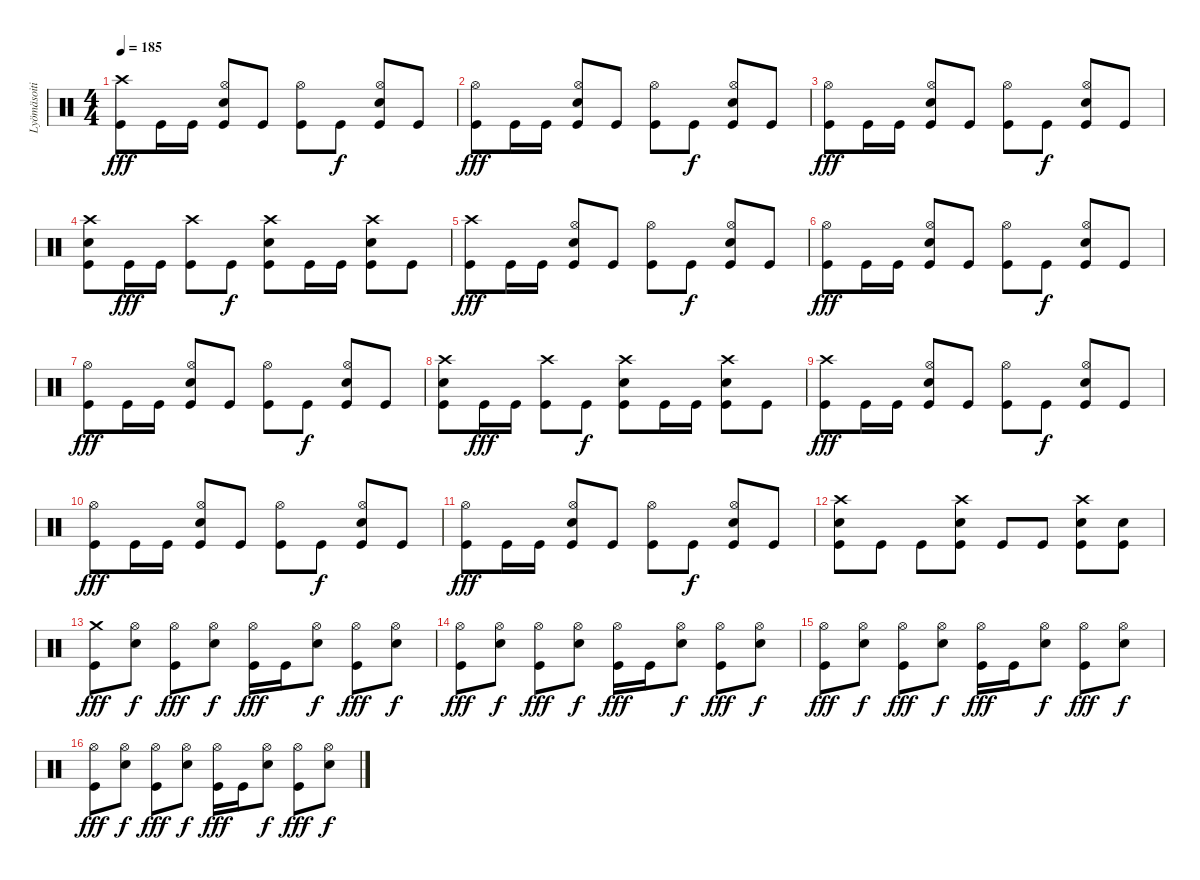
\track ("Lyömäsoitin" "Lyömäsoiti") {instrument percussion}
\staff {score}
\articulation defaults
\ts (4 4)
\tempo 185
\clef neutral
\ks c
("Crash high (hit)" "Kick (hit)").8{dy fff} "Kick (hit)".16 "Kick (hit)".16 ("Hi-Hat (open)" "Electric Snare (hit)" "Kick (hit)").8 "Kick (hit)".8 ("Hi-Hat (open)" "Kick (hit)").8 "Kick (hit)".8{dy f} ("Hi-Hat (open)" "Electric Snare (hit)" "Kick (hit)").8 "Kick (hit)".8 |
("Hi-Hat (open)" "Kick (hit)").8{dy fff} "Kick (hit)".16 "Kick (hit)".16 ("Hi-Hat (open)" "Electric Snare (hit)" "Kick (hit)").8 "Kick (hit)".8 ("Hi-Hat (open)" "Kick (hit)").8 "Kick (hit)".8{dy f} ("Hi-Hat (open)" "Electric Snare (hit)" "Kick (hit)").8 "Kick (hit)".8 |
("Hi-Hat (open)" "Kick (hit)").8{dy fff} "Kick (hit)".16 "Kick (hit)".16 ("Hi-Hat (open)" "Electric Snare (hit)" "Kick (hit)").8 "Kick (hit)".8 ("Hi-Hat (open)" "Kick (hit)").8 "Kick (hit)".8{dy f} ("Hi-Hat (open)" "Electric Snare (hit)" "Kick (hit)").8 "Kick (hit)".8 |
("Crash high (hit)" "Electric Snare (hit)" "Kick (hit)").8 "Kick (hit)".16{dy fff} "Kick (hit)".16 ("Crash high (hit)" "Kick (hit)").8 "Kick (hit)".8{dy f} ("Crash high (hit)" "Electric Snare (hit)" "Kick (hit)").8 "Kick (hit)".16 "Kick (hit)".16 ("Crash high (hit)" "Electric Snare (hit)" "Kick (hit)").8 "Kick (hit)".8 |
("Crash high (hit)" "Kick (hit)").8{dy fff} "Kick (hit)".16 "Kick (hit)".16 ("Hi-Hat (open)" "Electric Snare (hit)" "Kick (hit)").8 "Kick (hit)".8 ("Hi-Hat (open)" "Kick (hit)").8 "Kick (hit)".8{dy f} ("Hi-Hat (open)" "Electric Snare (hit)" "Kick (hit)").8 "Kick (hit)".8 |
("Hi-Hat (open)" "Kick (hit)").8{dy fff} "Kick (hit)".16 "Kick (hit)".16 ("Hi-Hat (open)" "Electric Snare (hit)" "Kick (hit)").8 "Kick (hit)".8 ("Hi-Hat (open)" "Kick (hit)").8 "Kick (hit)".8{dy f} ("Hi-Hat (open)" "Electric Snare (hit)" "Kick (hit)").8 "Kick (hit)".8 |
("Hi-Hat (open)" "Kick (hit)").8{dy fff} "Kick (hit)".16 "Kick (hit)".16 ("Hi-Hat (open)" "Electric Snare (hit)" "Kick (hit)").8 "Kick (hit)".8 ("Hi-Hat (open)" "Kick (hit)").8 "Kick (hit)".8{dy f} ("Hi-Hat (open)" "Electric Snare (hit)" "Kick (hit)").8 "Kick (hit)".8 |
("Crash high (hit)" "Electric Snare (hit)" "Kick (hit)").8 "Kick (hit)".16{dy fff} "Kick (hit)".16 ("Crash high (hit)" "Kick (hit)").8 "Kick (hit)".8{dy f} ("Crash high (hit)" "Electric Snare (hit)" "Kick (hit)").8 "Kick (hit)".16 "Kick (hit)".16 ("Crash high (hit)" "Electric Snare (hit)" "Kick (hit)").8 "Kick (hit)".8 |
("Crash high (hit)" "Kick (hit)").8{dy fff} "Kick (hit)".16 "Kick (hit)".16 ("Hi-Hat (open)" "Electric Snare (hit)" "Kick (hit)").8 "Kick (hit)".8 ("Hi-Hat (open)" "Kick (hit)").8 "Kick (hit)".8{dy f} ("Hi-Hat (open)" "Electric Snare (hit)" "Kick (hit)").8 "Kick (hit)".8 |
("Hi-Hat (open)" "Kick (hit)").8{dy fff} "Kick (hit)".16 "Kick (hit)".16 ("Hi-Hat (open)" "Electric Snare (hit)" "Kick (hit)").8 "Kick (hit)".8 ("Hi-Hat (open)" "Kick (hit)").8 "Kick (hit)".8{dy f} ("Hi-Hat (open)" "Electric Snare (hit)" "Kick (hit)").8 "Kick (hit)".8 |
("Hi-Hat (open)" "Kick (hit)").8{dy fff} "Kick (hit)".16 "Kick (hit)".16 ("Hi-Hat (open)" "Electric Snare (hit)" "Kick (hit)").8 "Kick (hit)".8 ("Hi-Hat (open)" "Kick (hit)").8 "Kick (hit)".8{dy f} ("Hi-Hat (open)" "Electric Snare (hit)" "Kick (hit)").8 "Kick (hit)".8 |
("Crash high (hit)" "Electric Snare (hit)" "Kick (hit)").8 "Kick (hit)".8 "Kick (hit)".8 ("Crash high (hit)" "Electric Snare (hit)" "Kick (hit)").8 "Kick (hit)".8 "Kick (hit)".8 ("Crash high (hit)" "Electric Snare (hit)" "Kick (hit)").8 ("Electric Snare (hit)" "Kick (hit)").8 |
("Crash medium (hit)" "Kick (hit)").8{dy fff} ("Hi-Hat (open)" "Electric Snare (hit)").8{dy f} ("Hi-Hat (open)" "Kick (hit)").8{dy fff} ("Hi-Hat (open)" "Electric Snare (hit)").8{dy f} ("Hi-Hat (open)" "Kick (hit)").16{dy fff} "Kick (hit)".16 ("Hi-Hat (open)" "Electric Snare (hit)").8{dy f} ("Hi-Hat (open)" "Kick (hit)").8{dy fff} ("Hi-Hat (open)" "Electric Snare (hit)").8{dy f} |
("Hi-Hat (open)" "Kick (hit)").8{dy fff} ("Hi-Hat (open)" "Electric Snare (hit)").8{dy f} ("Hi-Hat (open)" "Kick (hit)").8{dy fff} ("Hi-Hat (open)" "Electric Snare (hit)").8{dy f} ("Hi-Hat (open)" "Kick (hit)").16{dy fff} "Kick (hit)".16 ("Hi-Hat (open)" "Electric Snare (hit)").8{dy f} ("Hi-Hat (open)" "Kick (hit)").8{dy fff} ("Hi-Hat (open)" "Electric Snare (hit)").8{dy f} |
("Hi-Hat (open)" "Kick (hit)").8{dy fff} ("Hi-Hat (open)" "Electric Snare (hit)").8{dy f} ("Hi-Hat (open)" "Kick (hit)").8{dy fff} ("Hi-Hat (open)" "Electric Snare (hit)").8{dy f} ("Hi-Hat (open)" "Kick (hit)").16{dy fff} "Kick (hit)".16 ("Hi-Hat (open)" "Electric Snare (hit)").8{dy f} ("Hi-Hat (open)" "Kick (hit)").8{dy fff} ("Hi-Hat (open)" "Electric Snare (hit)").8{dy f} |
("Hi-Hat (open)" "Kick (hit)").8{dy fff} ("Hi-Hat (open)" "Electric Snare (hit)").8{dy f} ("Hi-Hat (open)" "Kick (hit)").8{dy fff} ("Hi-Hat (open)" "Electric Snare (hit)").8{dy f} ("Hi-Hat (open)" "Kick (hit)").16{dy fff} "Kick (hit)".16 ("Hi-Hat (open)" "Electric Snare (hit)").8{dy f} ("Hi-Hat (open)" "Kick (hit)").8{dy fff} ("Hi-Hat (open)" "Electric Snare (hit)").8{dy f}
